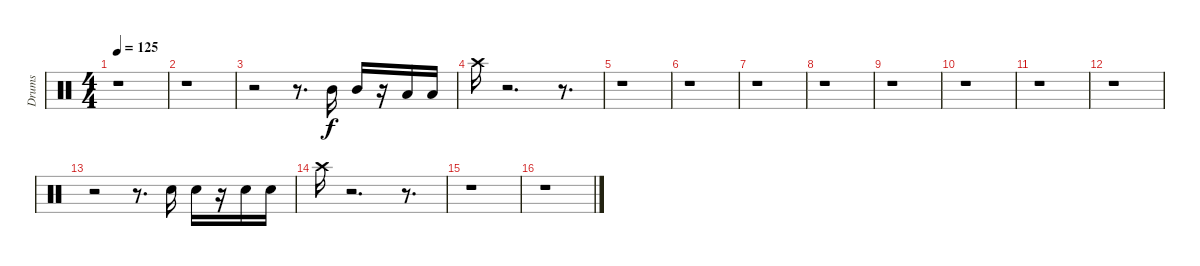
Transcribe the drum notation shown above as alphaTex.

\track ("Drums" "Drums") {instrument percussion}
\staff {score}
\articulation defaults
\ts (4 4)
\tempo 125
\clef neutral
\ks c
r.1{dy f} |
r.1 |
r.2 r.8{d} "Mid Tom (hit)".16 "Mid Tom (hit)".16 r.16 "Low Tom (hit)".16 "Low Tom (hit)".16 |
"Crash high (hit)".16 r.2{d} r.8{d} |
r.1 |
r.1 |
r.1 |
r.1 |
r.1 |
r.1 |
r.1 |
r.1 |
r.2 r.8{d} "Electric Snare (hit)".16 "Electric Snare (hit)".16 r.16 "Snare (hit) 2".16 "Snare (hit) 2".16 |
"Crash high (hit)".16 r.2{d} r.8{d} |
r.1 |
r.1
